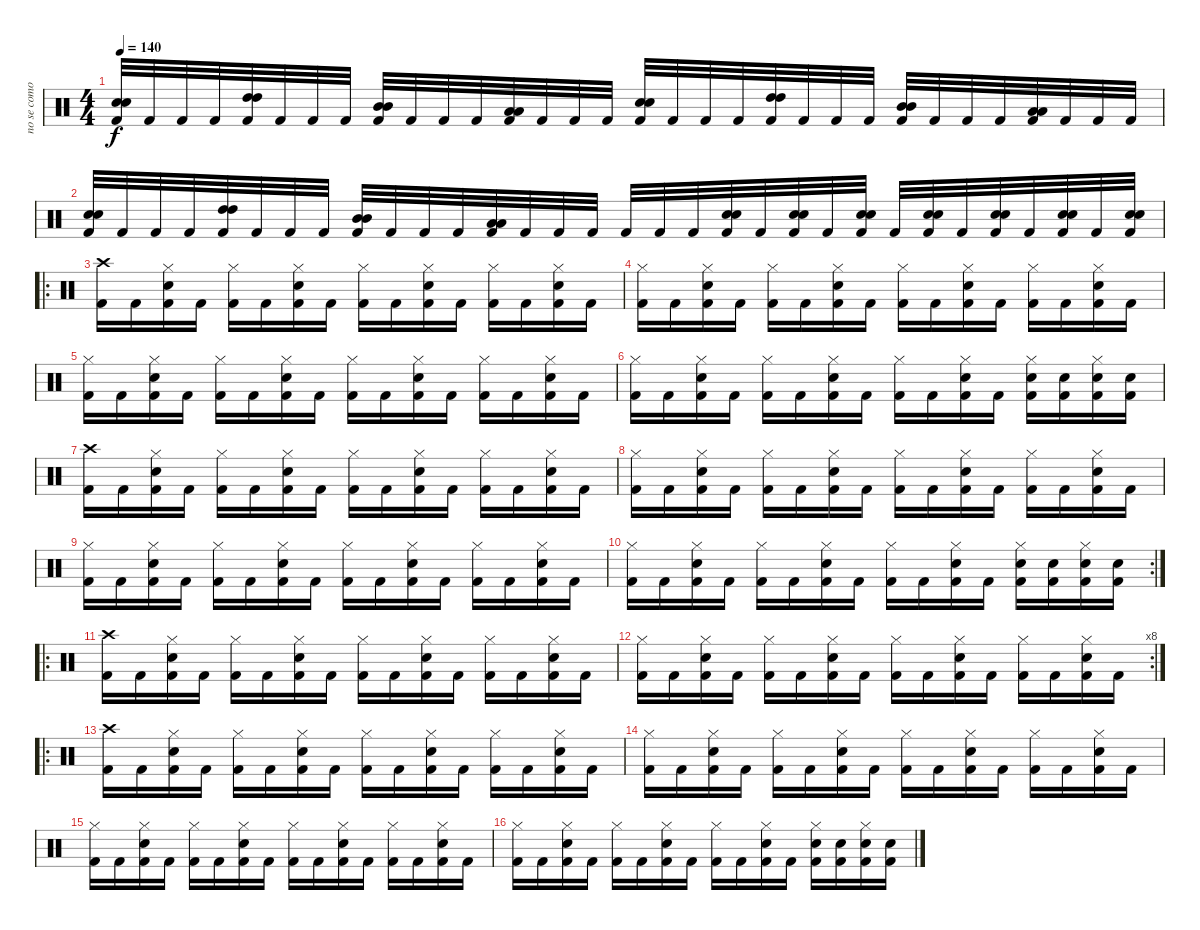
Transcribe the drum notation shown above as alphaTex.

\track ("no se como se llama" "no se como") {instrument percussion}
\staff {score}
\articulation defaults
\ts (4 4)
\tempo 140
\clef neutral
\ks c
("Kick (hit) 2" "Electric Snare (hit)" "Electric Snare (hit)").32{dy f} "Kick (hit) 2".32 "Kick (hit) 2".32 "Kick (hit) 2".32 ("Kick (hit) 2" "High Tom (hit)" "High Tom (hit)").32 "Kick (hit) 2".32 "Kick (hit) 2".32 "Kick (hit) 2".32 ("Kick (hit) 2" "Mid Tom (hit)" "Mid Tom (hit)").32 "Kick (hit) 2".32 "Kick (hit) 2".32 "Kick (hit) 2".32 ("Kick (hit) 2" "Low Tom (hit)" "Low Tom (hit)").32 "Kick (hit) 2".32 "Kick (hit) 2".32 "Kick (hit) 2".32 ("Kick (hit) 2" "Electric Snare (hit)" "Electric Snare (hit)").32 "Kick (hit) 2".32 "Kick (hit) 2".32 "Kick (hit) 2".32 ("Kick (hit) 2" "High Tom (hit)" "High Tom (hit)").32 "Kick (hit) 2".32 "Kick (hit) 2".32 "Kick (hit) 2".32 ("Kick (hit) 2" "Mid Tom (hit)" "Mid Tom (hit)").32 "Kick (hit) 2".32 "Kick (hit) 2".32 "Kick (hit) 2".32 ("Kick (hit) 2" "Low Tom (hit)" "Low Tom (hit)").32 "Kick (hit) 2".32 "Kick (hit) 2".32 "Kick (hit) 2".32 |
("Kick (hit) 2" "Electric Snare (hit)" "Electric Snare (hit)").32 "Kick (hit) 2".32 "Kick (hit) 2".32 "Kick (hit) 2".32 ("Kick (hit) 2" "High Tom (hit)" "High Tom (hit)").32 "Kick (hit) 2".32 "Kick (hit) 2".32 "Kick (hit) 2".32 ("Kick (hit) 2" "Mid Tom (hit)" "Mid Tom (hit)").32 "Kick (hit) 2".32 "Kick (hit) 2".32 "Kick (hit) 2".32 ("Kick (hit) 2" "Low Tom (hit)" "Low Tom (hit)").32 "Kick (hit) 2".32 "Kick (hit) 2".32 "Kick (hit) 2".32 "Kick (hit) 2".32 "Kick (hit) 2".32 "Kick (hit) 2".32 ("Kick (hit) 2" "Electric Snare (hit)" "Electric Snare (hit)").32 "Kick (hit) 2".32 ("Kick (hit) 2" "Electric Snare (hit)" "Electric Snare (hit)").32 "Kick (hit) 2".32 ("Kick (hit) 2" "Electric Snare (hit)" "Electric Snare (hit)").32 "Kick (hit) 2".32 ("Kick (hit) 2" "Electric Snare (hit)" "Electric Snare (hit)").32 "Kick (hit) 2".32 ("Kick (hit) 2" "Electric Snare (hit)" "Electric Snare (hit)").32 "Kick (hit) 2".32 ("Kick (hit) 2" "Electric Snare (hit)" "Electric Snare (hit)").32 "Kick (hit) 2".32 ("Kick (hit) 2" "Electric Snare (hit)" "Electric Snare (hit)").32 |
\ro
("Kick (hit) 2" "Crash high (hit)").16 "Kick (hit) 2".16 ("Kick (hit) 2" "Electric Snare (hit)" "Hi-Hat (closed)").16 "Kick (hit) 2".16 ("Kick (hit) 2" "Hi-Hat (closed)").16 "Kick (hit) 2".16 ("Kick (hit) 2" "Electric Snare (hit)" "Hi-Hat (closed)").16 "Kick (hit) 2".16 ("Kick (hit) 2" "Hi-Hat (closed)").16 "Kick (hit) 2".16 ("Kick (hit) 2" "Electric Snare (hit)" "Hi-Hat (closed)").16 "Kick (hit) 2".16 ("Kick (hit) 2" "Hi-Hat (closed)").16 "Kick (hit) 2".16 ("Kick (hit) 2" "Electric Snare (hit)" "Hi-Hat (closed)").16 "Kick (hit) 2".16 |
("Kick (hit) 2" "Hi-Hat (closed)").16 "Kick (hit) 2".16 ("Kick (hit) 2" "Electric Snare (hit)" "Hi-Hat (closed)").16 "Kick (hit) 2".16 ("Kick (hit) 2" "Hi-Hat (closed)").16 "Kick (hit) 2".16 ("Kick (hit) 2" "Electric Snare (hit)" "Hi-Hat (closed)").16 "Kick (hit) 2".16 ("Kick (hit) 2" "Hi-Hat (closed)").16 "Kick (hit) 2".16 ("Kick (hit) 2" "Electric Snare (hit)" "Hi-Hat (closed)").16 "Kick (hit) 2".16 ("Kick (hit) 2" "Hi-Hat (closed)").16 "Kick (hit) 2".16 ("Kick (hit) 2" "Electric Snare (hit)" "Hi-Hat (closed)").16 "Kick (hit) 2".16 |
("Kick (hit) 2" "Hi-Hat (closed)").16 "Kick (hit) 2".16 ("Kick (hit) 2" "Electric Snare (hit)" "Hi-Hat (closed)").16 "Kick (hit) 2".16 ("Kick (hit) 2" "Hi-Hat (closed)").16 "Kick (hit) 2".16 ("Kick (hit) 2" "Electric Snare (hit)" "Hi-Hat (closed)").16 "Kick (hit) 2".16 ("Kick (hit) 2" "Hi-Hat (closed)").16 "Kick (hit) 2".16 ("Kick (hit) 2" "Electric Snare (hit)" "Hi-Hat (closed)").16 "Kick (hit) 2".16 ("Kick (hit) 2" "Hi-Hat (closed)").16 "Kick (hit) 2".16 ("Kick (hit) 2" "Electric Snare (hit)" "Hi-Hat (closed)").16 "Kick (hit) 2".16 |
("Kick (hit) 2" "Hi-Hat (closed)").16 "Kick (hit) 2".16 ("Kick (hit) 2" "Electric Snare (hit)" "Hi-Hat (closed)").16 "Kick (hit) 2".16 ("Kick (hit) 2" "Hi-Hat (closed)").16 "Kick (hit) 2".16 ("Kick (hit) 2" "Electric Snare (hit)" "Hi-Hat (closed)").16 "Kick (hit) 2".16 ("Kick (hit) 2" "Hi-Hat (closed)").16 "Kick (hit) 2".16 ("Kick (hit) 2" "Electric Snare (hit)" "Hi-Hat (closed)").16 "Kick (hit) 2".16 ("Kick (hit) 2" "Electric Snare (hit)" "Hi-Hat (closed)").16 ("Kick (hit) 2" "Electric Snare (hit)").16 ("Kick (hit) 2" "Electric Snare (hit)" "Hi-Hat (closed)").16 ("Kick (hit) 2" "Electric Snare (hit)").16 |
("Kick (hit) 2" "Crash high (hit)").16 "Kick (hit) 2".16 ("Kick (hit) 2" "Electric Snare (hit)" "Hi-Hat (closed)").16 "Kick (hit) 2".16 ("Kick (hit) 2" "Hi-Hat (closed)").16 "Kick (hit) 2".16 ("Kick (hit) 2" "Electric Snare (hit)" "Hi-Hat (closed)").16 "Kick (hit) 2".16 ("Kick (hit) 2" "Hi-Hat (closed)").16 "Kick (hit) 2".16 ("Kick (hit) 2" "Electric Snare (hit)" "Hi-Hat (closed)").16 "Kick (hit) 2".16 ("Kick (hit) 2" "Hi-Hat (closed)").16 "Kick (hit) 2".16 ("Kick (hit) 2" "Electric Snare (hit)" "Hi-Hat (closed)").16 "Kick (hit) 2".16 |
("Kick (hit) 2" "Hi-Hat (closed)").16 "Kick (hit) 2".16 ("Kick (hit) 2" "Electric Snare (hit)" "Hi-Hat (closed)").16 "Kick (hit) 2".16 ("Kick (hit) 2" "Hi-Hat (closed)").16 "Kick (hit) 2".16 ("Kick (hit) 2" "Electric Snare (hit)" "Hi-Hat (closed)").16 "Kick (hit) 2".16 ("Kick (hit) 2" "Hi-Hat (closed)").16 "Kick (hit) 2".16 ("Kick (hit) 2" "Electric Snare (hit)" "Hi-Hat (closed)").16 "Kick (hit) 2".16 ("Kick (hit) 2" "Hi-Hat (closed)").16 "Kick (hit) 2".16 ("Kick (hit) 2" "Electric Snare (hit)" "Hi-Hat (closed)").16 "Kick (hit) 2".16 |
("Kick (hit) 2" "Hi-Hat (closed)").16 "Kick (hit) 2".16 ("Kick (hit) 2" "Electric Snare (hit)" "Hi-Hat (closed)").16 "Kick (hit) 2".16 ("Kick (hit) 2" "Hi-Hat (closed)").16 "Kick (hit) 2".16 ("Kick (hit) 2" "Electric Snare (hit)" "Hi-Hat (closed)").16 "Kick (hit) 2".16 ("Kick (hit) 2" "Hi-Hat (closed)").16 "Kick (hit) 2".16 ("Kick (hit) 2" "Electric Snare (hit)" "Hi-Hat (closed)").16 "Kick (hit) 2".16 ("Kick (hit) 2" "Hi-Hat (closed)").16 "Kick (hit) 2".16 ("Kick (hit) 2" "Electric Snare (hit)" "Hi-Hat (closed)").16 "Kick (hit) 2".16 |
\rc 2
("Kick (hit) 2" "Hi-Hat (closed)").16 "Kick (hit) 2".16 ("Kick (hit) 2" "Electric Snare (hit)" "Hi-Hat (closed)").16 "Kick (hit) 2".16 ("Kick (hit) 2" "Hi-Hat (closed)").16 "Kick (hit) 2".16 ("Kick (hit) 2" "Electric Snare (hit)" "Hi-Hat (closed)").16 "Kick (hit) 2".16 ("Kick (hit) 2" "Hi-Hat (closed)").16 "Kick (hit) 2".16 ("Kick (hit) 2" "Electric Snare (hit)" "Hi-Hat (closed)").16 "Kick (hit) 2".16 ("Kick (hit) 2" "Electric Snare (hit)" "Hi-Hat (closed)").16 ("Kick (hit) 2" "Electric Snare (hit)").16 ("Kick (hit) 2" "Electric Snare (hit)" "Hi-Hat (closed)").16 ("Kick (hit) 2" "Electric Snare (hit)").16 |
\ro
("Kick (hit) 2" "Crash high (hit)").16 "Kick (hit) 2".16 ("Kick (hit) 2" "Electric Snare (hit)" "Hi-Hat (closed)").16 "Kick (hit) 2".16 ("Kick (hit) 2" "Hi-Hat (closed)").16 "Kick (hit) 2".16 ("Kick (hit) 2" "Electric Snare (hit)" "Hi-Hat (closed)").16 "Kick (hit) 2".16 ("Kick (hit) 2" "Hi-Hat (closed)").16 "Kick (hit) 2".16 ("Kick (hit) 2" "Electric Snare (hit)" "Hi-Hat (closed)").16 "Kick (hit) 2".16 ("Kick (hit) 2" "Hi-Hat (closed)").16 "Kick (hit) 2".16 ("Kick (hit) 2" "Electric Snare (hit)" "Hi-Hat (closed)").16 "Kick (hit) 2".16 |
\rc 8
("Kick (hit) 2" "Hi-Hat (closed)").16 "Kick (hit) 2".16 ("Kick (hit) 2" "Electric Snare (hit)" "Hi-Hat (closed)").16 "Kick (hit) 2".16 ("Kick (hit) 2" "Hi-Hat (closed)").16 "Kick (hit) 2".16 ("Kick (hit) 2" "Electric Snare (hit)" "Hi-Hat (closed)").16 "Kick (hit) 2".16 ("Kick (hit) 2" "Hi-Hat (closed)").16 "Kick (hit) 2".16 ("Kick (hit) 2" "Electric Snare (hit)" "Hi-Hat (closed)").16 "Kick (hit) 2".16 ("Kick (hit) 2" "Hi-Hat (closed)").16 "Kick (hit) 2".16 ("Kick (hit) 2" "Electric Snare (hit)" "Hi-Hat (closed)").16 "Kick (hit) 2".16 |
\ro
("Kick (hit) 2" "Crash high (hit)").16 "Kick (hit) 2".16 ("Kick (hit) 2" "Electric Snare (hit)" "Hi-Hat (closed)").16 "Kick (hit) 2".16 ("Kick (hit) 2" "Hi-Hat (closed)").16 "Kick (hit) 2".16 ("Kick (hit) 2" "Electric Snare (hit)" "Hi-Hat (closed)").16 "Kick (hit) 2".16 ("Kick (hit) 2" "Hi-Hat (closed)").16 "Kick (hit) 2".16 ("Kick (hit) 2" "Electric Snare (hit)" "Hi-Hat (closed)").16 "Kick (hit) 2".16 ("Kick (hit) 2" "Hi-Hat (closed)").16 "Kick (hit) 2".16 ("Kick (hit) 2" "Electric Snare (hit)" "Hi-Hat (closed)").16 "Kick (hit) 2".16 |
("Kick (hit) 2" "Hi-Hat (closed)").16 "Kick (hit) 2".16 ("Kick (hit) 2" "Electric Snare (hit)" "Hi-Hat (closed)").16 "Kick (hit) 2".16 ("Kick (hit) 2" "Hi-Hat (closed)").16 "Kick (hit) 2".16 ("Kick (hit) 2" "Electric Snare (hit)" "Hi-Hat (closed)").16 "Kick (hit) 2".16 ("Kick (hit) 2" "Hi-Hat (closed)").16 "Kick (hit) 2".16 ("Kick (hit) 2" "Electric Snare (hit)" "Hi-Hat (closed)").16 "Kick (hit) 2".16 ("Kick (hit) 2" "Hi-Hat (closed)").16 "Kick (hit) 2".16 ("Kick (hit) 2" "Electric Snare (hit)" "Hi-Hat (closed)").16 "Kick (hit) 2".16 |
("Kick (hit) 2" "Hi-Hat (closed)").16 "Kick (hit) 2".16 ("Kick (hit) 2" "Electric Snare (hit)" "Hi-Hat (closed)").16 "Kick (hit) 2".16 ("Kick (hit) 2" "Hi-Hat (closed)").16 "Kick (hit) 2".16 ("Kick (hit) 2" "Electric Snare (hit)" "Hi-Hat (closed)").16 "Kick (hit) 2".16 ("Kick (hit) 2" "Hi-Hat (closed)").16 "Kick (hit) 2".16 ("Kick (hit) 2" "Electric Snare (hit)" "Hi-Hat (closed)").16 "Kick (hit) 2".16 ("Kick (hit) 2" "Hi-Hat (closed)").16 "Kick (hit) 2".16 ("Kick (hit) 2" "Electric Snare (hit)" "Hi-Hat (closed)").16 "Kick (hit) 2".16 |
("Kick (hit) 2" "Hi-Hat (closed)").16 "Kick (hit) 2".16 ("Kick (hit) 2" "Electric Snare (hit)" "Hi-Hat (closed)").16 "Kick (hit) 2".16 ("Kick (hit) 2" "Hi-Hat (closed)").16 "Kick (hit) 2".16 ("Kick (hit) 2" "Electric Snare (hit)" "Hi-Hat (closed)").16 "Kick (hit) 2".16 ("Kick (hit) 2" "Hi-Hat (closed)").16 "Kick (hit) 2".16 ("Kick (hit) 2" "Electric Snare (hit)" "Hi-Hat (closed)").16 "Kick (hit) 2".16 ("Kick (hit) 2" "Electric Snare (hit)" "Hi-Hat (closed)").16 ("Kick (hit) 2" "Electric Snare (hit)").16 ("Kick (hit) 2" "Electric Snare (hit)" "Hi-Hat (closed)").16 ("Kick (hit) 2" "Electric Snare (hit)").16
